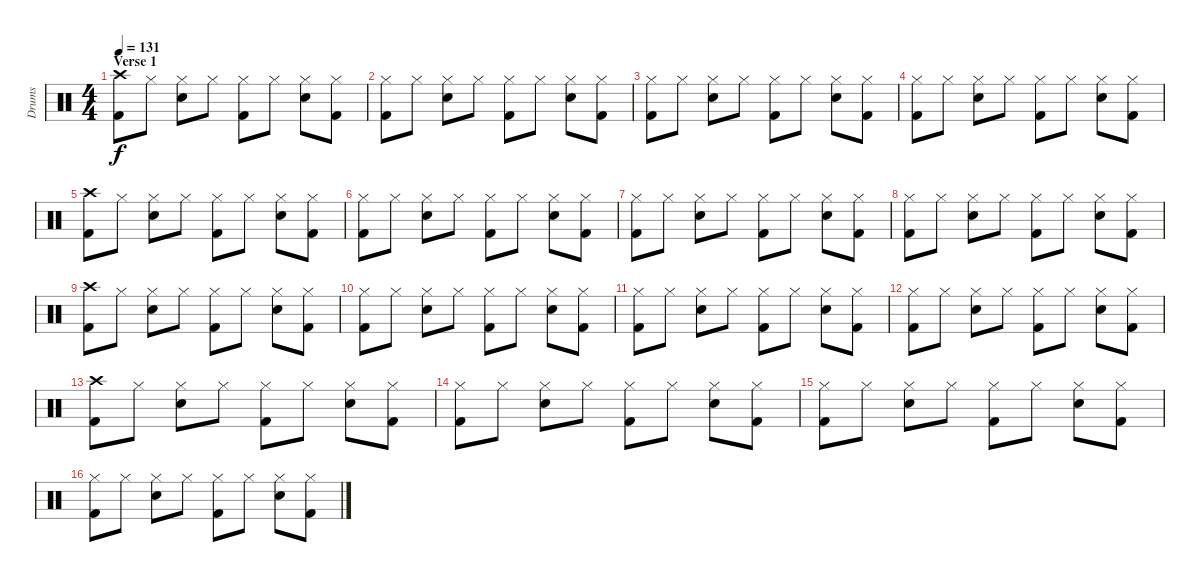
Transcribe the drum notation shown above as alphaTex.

\track ("Drums" "Drums") {instrument percussion}
\staff {score}
\articulation defaults
\ts (4 4)
\section ("" "Verse 1")
\tempo 131
\clef neutral
\ks c
("Crash high (hit)" "Kick (hit) 2").8{dy f} "Hi-Hat (closed)".8 ("Hi-Hat (closed)" "Electric Snare (hit)").8 "Hi-Hat (closed)".8 ("Hi-Hat (closed)" "Kick (hit) 2").8 "Hi-Hat (closed)".8 ("Hi-Hat (closed)" "Electric Snare (hit)").8 ("Hi-Hat (closed)" "Kick (hit) 2").8 |
("Hi-Hat (closed)" "Kick (hit) 2").8 "Hi-Hat (closed)".8 ("Hi-Hat (closed)" "Electric Snare (hit)").8 "Hi-Hat (closed)".8 ("Hi-Hat (closed)" "Kick (hit) 2").8 "Hi-Hat (closed)".8 ("Hi-Hat (closed)" "Electric Snare (hit)").8 ("Hi-Hat (closed)" "Kick (hit) 2").8 |
("Hi-Hat (closed)" "Kick (hit) 2").8 "Hi-Hat (closed)".8 ("Hi-Hat (closed)" "Electric Snare (hit)").8 "Hi-Hat (closed)".8 ("Hi-Hat (closed)" "Kick (hit) 2").8 "Hi-Hat (closed)".8 ("Hi-Hat (closed)" "Electric Snare (hit)").8 ("Hi-Hat (closed)" "Kick (hit) 2").8 |
("Hi-Hat (closed)" "Kick (hit) 2").8 "Hi-Hat (closed)".8 ("Hi-Hat (closed)" "Electric Snare (hit)").8 "Hi-Hat (closed)".8 ("Hi-Hat (closed)" "Kick (hit) 2").8 "Hi-Hat (closed)".8 ("Hi-Hat (closed)" "Electric Snare (hit)").8 ("Hi-Hat (closed)" "Kick (hit) 2").8 |
("Crash high (hit)" "Kick (hit) 2").8 "Hi-Hat (closed)".8 ("Hi-Hat (closed)" "Electric Snare (hit)").8 "Hi-Hat (closed)".8 ("Hi-Hat (closed)" "Kick (hit) 2").8 "Hi-Hat (closed)".8 ("Hi-Hat (closed)" "Electric Snare (hit)").8 ("Hi-Hat (closed)" "Kick (hit) 2").8 |
("Hi-Hat (closed)" "Kick (hit) 2").8 "Hi-Hat (closed)".8 ("Hi-Hat (closed)" "Electric Snare (hit)").8 "Hi-Hat (closed)".8 ("Hi-Hat (closed)" "Kick (hit) 2").8 "Hi-Hat (closed)".8 ("Hi-Hat (closed)" "Electric Snare (hit)").8 ("Hi-Hat (closed)" "Kick (hit) 2").8 |
("Hi-Hat (closed)" "Kick (hit) 2").8 "Hi-Hat (closed)".8 ("Hi-Hat (closed)" "Electric Snare (hit)").8 "Hi-Hat (closed)".8 ("Hi-Hat (closed)" "Kick (hit) 2").8 "Hi-Hat (closed)".8 ("Hi-Hat (closed)" "Electric Snare (hit)").8 ("Hi-Hat (closed)" "Kick (hit) 2").8 |
("Hi-Hat (closed)" "Kick (hit) 2").8 "Hi-Hat (closed)".8 ("Hi-Hat (closed)" "Electric Snare (hit)").8 "Hi-Hat (closed)".8 ("Hi-Hat (closed)" "Kick (hit) 2").8 "Hi-Hat (closed)".8 ("Hi-Hat (closed)" "Electric Snare (hit)").8 ("Hi-Hat (closed)" "Kick (hit) 2").8 |
("Crash high (hit)" "Kick (hit) 2").8 "Hi-Hat (closed)".8 ("Hi-Hat (closed)" "Electric Snare (hit)").8 "Hi-Hat (closed)".8 ("Hi-Hat (closed)" "Kick (hit) 2").8 "Hi-Hat (closed)".8 ("Hi-Hat (closed)" "Electric Snare (hit)").8 ("Hi-Hat (closed)" "Kick (hit) 2").8 |
("Hi-Hat (closed)" "Kick (hit) 2").8 "Hi-Hat (closed)".8 ("Hi-Hat (closed)" "Electric Snare (hit)").8 "Hi-Hat (closed)".8 ("Hi-Hat (closed)" "Kick (hit) 2").8 "Hi-Hat (closed)".8 ("Hi-Hat (closed)" "Electric Snare (hit)").8 ("Hi-Hat (closed)" "Kick (hit) 2").8 |
("Hi-Hat (closed)" "Kick (hit) 2").8 "Hi-Hat (closed)".8 ("Hi-Hat (closed)" "Electric Snare (hit)").8 "Hi-Hat (closed)".8 ("Hi-Hat (closed)" "Kick (hit) 2").8 "Hi-Hat (closed)".8 ("Hi-Hat (closed)" "Electric Snare (hit)").8 ("Hi-Hat (closed)" "Kick (hit) 2").8 |
("Hi-Hat (closed)" "Kick (hit) 2").8 "Hi-Hat (closed)".8 ("Hi-Hat (closed)" "Electric Snare (hit)").8 "Hi-Hat (closed)".8 ("Hi-Hat (closed)" "Kick (hit) 2").8 "Hi-Hat (closed)".8 ("Hi-Hat (closed)" "Electric Snare (hit)").8 ("Hi-Hat (closed)" "Kick (hit) 2").8 |
("Crash high (hit)" "Kick (hit) 2").8 "Hi-Hat (closed)".8 ("Hi-Hat (closed)" "Electric Snare (hit)").8 "Hi-Hat (closed)".8 ("Hi-Hat (closed)" "Kick (hit) 2").8 "Hi-Hat (closed)".8 ("Hi-Hat (closed)" "Electric Snare (hit)").8 ("Hi-Hat (closed)" "Kick (hit) 2").8 |
("Hi-Hat (closed)" "Kick (hit) 2").8 "Hi-Hat (closed)".8 ("Hi-Hat (closed)" "Electric Snare (hit)").8 "Hi-Hat (closed)".8 ("Hi-Hat (closed)" "Kick (hit) 2").8 "Hi-Hat (closed)".8 ("Hi-Hat (closed)" "Electric Snare (hit)").8 ("Hi-Hat (closed)" "Kick (hit) 2").8 |
("Hi-Hat (closed)" "Kick (hit) 2").8 "Hi-Hat (closed)".8 ("Hi-Hat (closed)" "Electric Snare (hit)").8 "Hi-Hat (closed)".8 ("Hi-Hat (closed)" "Kick (hit) 2").8 "Hi-Hat (closed)".8 ("Hi-Hat (closed)" "Electric Snare (hit)").8 ("Hi-Hat (closed)" "Kick (hit) 2").8 |
("Hi-Hat (closed)" "Kick (hit) 2").8 "Hi-Hat (closed)".8 ("Hi-Hat (closed)" "Electric Snare (hit)").8 "Hi-Hat (closed)".8 ("Hi-Hat (closed)" "Kick (hit) 2").8 "Hi-Hat (closed)".8 ("Hi-Hat (closed)" "Electric Snare (hit)").8 ("Hi-Hat (closed)" "Kick (hit) 2").8
